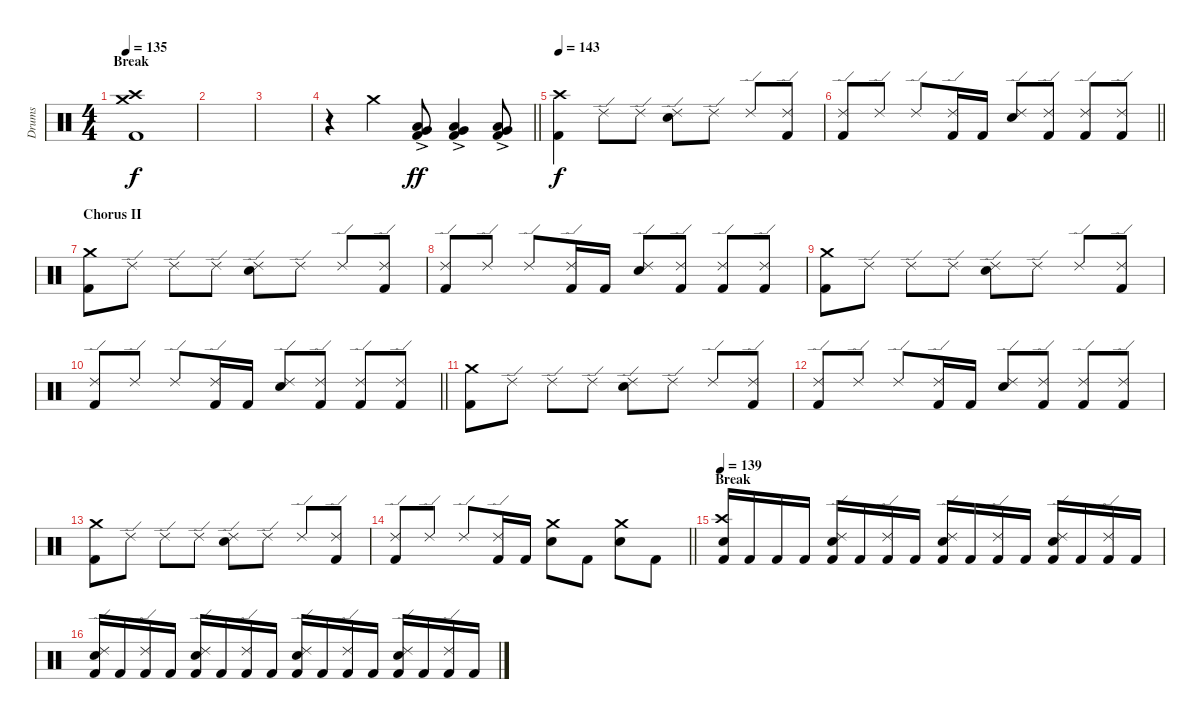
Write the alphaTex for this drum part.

\track ("Drums" "Drums") {instrument percussion}
\staff {score}
\articulation defaults
\ts (4 4)
\section ("" "Break")
\tempo 135
\clef neutral
\ks c
("Kick (hit) 2" "Crash medium (hit)" "Crash high (hit)").1{dy f} |
|
|
\barLineRight lightlight
r.4 "Crash medium (hit)".4 ("Kick (hit) 2" "Very Low Tom (hit)" "Low Floor Tom (hit)"{ac}).8{dy ff} ("Kick (hit) 2" "Very Low Tom (hit)" "Low Floor Tom (hit)"{ac}).4 ("Kick (hit) 2" "Very Low Tom (hit)" "Low Floor Tom (hit)"{ac}).8 |
\section ("" "")
\tempo 143
("Kick (hit) 2" "Crash high (hit)").4{dy f} "Ride (edge) 2".8 "Ride (edge) 2".8 ("Snare (hit) 2" "Ride (edge) 2").8 "Ride (edge) 2".8 "Ride (edge) 2".8 ("Kick (hit) 2" "Ride (edge) 2").8 |
\barLineRight lightlight
("Kick (hit) 2" "Ride (edge) 2").8 "Ride (edge) 2".8 "Ride (edge) 2".8 ("Kick (hit) 2" "Ride (edge) 2").16 "Kick (hit) 2".16 ("Snare (hit) 2" "Ride (edge) 2").8 ("Kick (hit) 2" "Ride (edge) 2").8 ("Kick (hit) 2" "Ride (edge) 2").8 ("Kick (hit) 2" "Ride (edge) 2").8 |
\section ("" "Chorus II")
("Kick (hit) 2" "Crash medium (hit)").8 "Ride (edge) 2".8 "Ride (edge) 2".8 "Ride (edge) 2".8 ("Snare (hit) 2" "Ride (edge) 2").8 "Ride (edge) 2".8 "Ride (edge) 2".8 ("Kick (hit) 2" "Ride (edge) 2").8 |
("Kick (hit) 2" "Ride (edge) 2").8 "Ride (edge) 2".8 "Ride (edge) 2".8 ("Kick (hit) 2" "Ride (edge) 2").16 "Kick (hit) 2".16 ("Snare (hit) 2" "Ride (edge) 2").8 ("Kick (hit) 2" "Ride (edge) 2").8 ("Kick (hit) 2" "Ride (edge) 2").8 ("Kick (hit) 2" "Ride (edge) 2").8 |
("Kick (hit) 2" "Crash medium (hit)").8 "Ride (edge) 2".8 "Ride (edge) 2".8 "Ride (edge) 2".8 ("Snare (hit) 2" "Ride (edge) 2").8 "Ride (edge) 2".8 "Ride (edge) 2".8 ("Kick (hit) 2" "Ride (edge) 2").8 |
\barLineRight lightlight
("Kick (hit) 2" "Ride (edge) 2").8 "Ride (edge) 2".8 "Ride (edge) 2".8 ("Kick (hit) 2" "Ride (edge) 2").16 "Kick (hit) 2".16 ("Snare (hit) 2" "Ride (edge) 2").8 ("Kick (hit) 2" "Ride (edge) 2").8 ("Kick (hit) 2" "Ride (edge) 2").8 ("Kick (hit) 2" "Ride (edge) 2").8 |
\section ("" "")
("Kick (hit) 2" "Crash medium (hit)").8 "Ride (edge) 2".8 "Ride (edge) 2".8 "Ride (edge) 2".8 ("Snare (hit) 2" "Ride (edge) 2").8 "Ride (edge) 2".8 "Ride (edge) 2".8 ("Kick (hit) 2" "Ride (edge) 2").8 |
("Kick (hit) 2" "Ride (edge) 2").8 "Ride (edge) 2".8 "Ride (edge) 2".8 ("Kick (hit) 2" "Ride (edge) 2").16 "Kick (hit) 2".16 ("Snare (hit) 2" "Ride (edge) 2").8 ("Kick (hit) 2" "Ride (edge) 2").8 ("Kick (hit) 2" "Ride (edge) 2").8 ("Kick (hit) 2" "Ride (edge) 2").8 |
("Kick (hit) 2" "Crash medium (hit)").8 "Ride (edge) 2".8 "Ride (edge) 2".8 "Ride (edge) 2".8 ("Snare (hit) 2" "Ride (edge) 2").8 "Ride (edge) 2".8 "Ride (edge) 2".8 ("Kick (hit) 2" "Ride (edge) 2").8 |
\barLineRight lightlight
("Kick (hit) 2" "Ride (edge) 2").8 "Ride (edge) 2".8 "Ride (edge) 2".8 ("Kick (hit) 2" "Ride (edge) 2").16 "Kick (hit) 2".16 ("Snare (hit) 2" "Crash medium (hit)").8 "Kick (hit) 2".8 ("Snare (hit) 2" "Crash medium (hit)").8 "Kick (hit) 2".8 |
\section ("" "Break")
\tempo 139
("Kick (hit) 2" "Snare (hit) 2" "Crash high (hit)").16 "Kick (hit) 2".16 "Kick (hit) 2".16 "Kick (hit) 2".16 ("Kick (hit) 2" "Snare (hit) 2" "Ride (edge) 2").16 "Kick (hit) 2".16 ("Kick (hit) 2" "Ride (edge) 2").16 "Kick (hit) 2".16 ("Kick (hit) 2" "Snare (hit) 2" "Ride (edge) 2").16 "Kick (hit) 2".16 ("Kick (hit) 2" "Ride (edge) 2").16 "Kick (hit) 2".16 ("Kick (hit) 2" "Snare (hit) 2" "Ride (edge) 2").16 "Kick (hit) 2".16 ("Kick (hit) 2" "Ride (edge) 2").16 "Kick (hit) 2".16 |
("Kick (hit) 2" "Snare (hit) 2" "Ride (edge) 2").16 "Kick (hit) 2".16 ("Kick (hit) 2" "Ride (edge) 2").16 "Kick (hit) 2".16 ("Kick (hit) 2" "Snare (hit) 2" "Ride (edge) 2").16 "Kick (hit) 2".16 ("Kick (hit) 2" "Ride (edge) 2").16 "Kick (hit) 2".16 ("Kick (hit) 2" "Snare (hit) 2" "Ride (edge) 2").16 "Kick (hit) 2".16 ("Kick (hit) 2" "Ride (edge) 2").16 "Kick (hit) 2".16 ("Kick (hit) 2" "Snare (hit) 2" "Ride (edge) 2").16 "Kick (hit) 2".16 ("Kick (hit) 2" "Ride (edge) 2").16 "Kick (hit) 2".16
